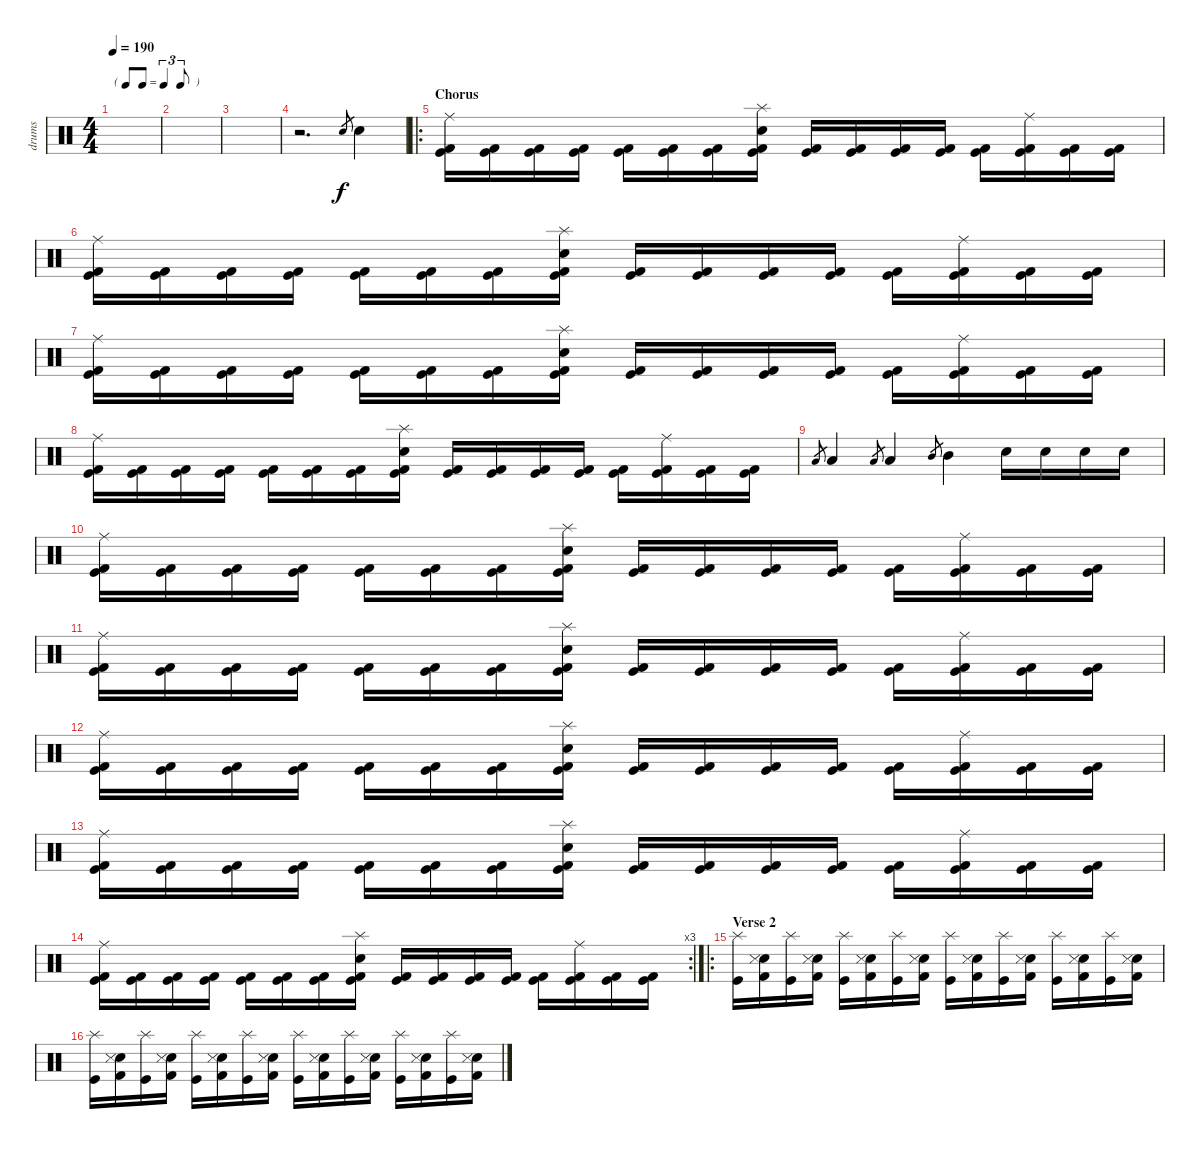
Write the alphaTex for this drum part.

\track ("drums" "drums") {instrument percussion}
\staff {score}
\articulation defaults
\ts (4 4)
\tf triplet8th
\tempo 190
\clef neutral
\ks c
|
|
|
r.2{d} "Snare (hit) 2".8{gr} "Snare (hit) 2".4 |
\ro
\section ("" "Chorus")
("Kick (hit) 2" "Kick (hit)" "Ride (middle)").16 ("Kick (hit) 2" "Kick (hit)").16 ("Kick (hit) 2" "Kick (hit)").16 ("Kick (hit) 2" "Kick (hit)").16 ("Kick (hit) 2" "Kick (hit)").16 ("Kick (hit) 2" "Kick (hit)").16 ("Kick (hit) 2" "Kick (hit)").16 ("Kick (hit) 2" "Kick (hit)" "Electric Snare (hit)" "Splash (hit)").16 ("Kick (hit) 2" "Kick (hit)").16 ("Kick (hit) 2" "Kick (hit)").16 ("Kick (hit) 2" "Kick (hit)").16 ("Kick (hit) 2" "Kick (hit)").16 ("Kick (hit) 2" "Kick (hit)").16 ("Kick (hit) 2" "Kick (hit)" "Ride (middle)").16 ("Kick (hit) 2" "Kick (hit)").16 ("Kick (hit) 2" "Kick (hit)").16 |
("Kick (hit) 2" "Kick (hit)" "Ride (middle)").16 ("Kick (hit) 2" "Kick (hit)").16 ("Kick (hit) 2" "Kick (hit)").16 ("Kick (hit) 2" "Kick (hit)").16 ("Kick (hit) 2" "Kick (hit)").16 ("Kick (hit) 2" "Kick (hit)").16 ("Kick (hit) 2" "Kick (hit)").16 ("Kick (hit) 2" "Kick (hit)" "Electric Snare (hit)" "Splash (hit)").16 ("Kick (hit) 2" "Kick (hit)").16 ("Kick (hit) 2" "Kick (hit)").16 ("Kick (hit) 2" "Kick (hit)").16 ("Kick (hit) 2" "Kick (hit)").16 ("Kick (hit) 2" "Kick (hit)").16 ("Kick (hit) 2" "Kick (hit)" "Ride (middle)").16 ("Kick (hit) 2" "Kick (hit)").16 ("Kick (hit) 2" "Kick (hit)").16 |
("Kick (hit) 2" "Kick (hit)" "Ride (middle)").16 ("Kick (hit) 2" "Kick (hit)").16 ("Kick (hit) 2" "Kick (hit)").16 ("Kick (hit) 2" "Kick (hit)").16 ("Kick (hit) 2" "Kick (hit)").16 ("Kick (hit) 2" "Kick (hit)").16 ("Kick (hit) 2" "Kick (hit)").16 ("Kick (hit) 2" "Kick (hit)" "Electric Snare (hit)" "Splash (hit)").16 ("Kick (hit) 2" "Kick (hit)").16 ("Kick (hit) 2" "Kick (hit)").16 ("Kick (hit) 2" "Kick (hit)").16 ("Kick (hit) 2" "Kick (hit)").16 ("Kick (hit) 2" "Kick (hit)").16 ("Kick (hit) 2" "Kick (hit)" "Ride (middle)").16 ("Kick (hit) 2" "Kick (hit)").16 ("Kick (hit) 2" "Kick (hit)").16 |
("Kick (hit) 2" "Kick (hit)" "Ride (middle)").16 ("Kick (hit) 2" "Kick (hit)").16 ("Kick (hit) 2" "Kick (hit)").16 ("Kick (hit) 2" "Kick (hit)").16 ("Kick (hit) 2" "Kick (hit)").16 ("Kick (hit) 2" "Kick (hit)").16 ("Kick (hit) 2" "Kick (hit)").16 ("Kick (hit) 2" "Kick (hit)" "Electric Snare (hit)" "Splash (hit)").16 ("Kick (hit) 2" "Kick (hit)").16 ("Kick (hit) 2" "Kick (hit)").16 ("Kick (hit) 2" "Kick (hit)").16 ("Kick (hit) 2" "Kick (hit)").16 ("Kick (hit) 2" "Kick (hit)").16 ("Kick (hit) 2" "Kick (hit)" "Ride (middle)").16 ("Kick (hit) 2" "Kick (hit)").16 ("Kick (hit) 2" "Kick (hit)").16 |
"Low Floor Tom (hit)".8{gr} "Low Floor Tom (hit)".4 "Low Tom (hit)".8{gr} "Low Tom (hit)".4 "Mid Tom (hit)".8{gr} "Mid Tom (hit)".4 "Electric Snare (hit)".16 "Electric Snare (hit)".16 "Electric Snare (hit)".16 "Electric Snare (hit)".16 |
("Kick (hit) 2" "Kick (hit)" "Ride (middle)").16 ("Kick (hit) 2" "Kick (hit)").16 ("Kick (hit) 2" "Kick (hit)").16 ("Kick (hit) 2" "Kick (hit)").16 ("Kick (hit) 2" "Kick (hit)").16 ("Kick (hit) 2" "Kick (hit)").16 ("Kick (hit) 2" "Kick (hit)").16 ("Kick (hit) 2" "Kick (hit)" "Electric Snare (hit)" "Splash (hit)").16 ("Kick (hit) 2" "Kick (hit)").16 ("Kick (hit) 2" "Kick (hit)").16 ("Kick (hit) 2" "Kick (hit)").16 ("Kick (hit) 2" "Kick (hit)").16 ("Kick (hit) 2" "Kick (hit)").16 ("Kick (hit) 2" "Kick (hit)" "Ride (middle)").16 ("Kick (hit) 2" "Kick (hit)").16 ("Kick (hit) 2" "Kick (hit)").16 |
("Kick (hit) 2" "Kick (hit)" "Ride (middle)").16 ("Kick (hit) 2" "Kick (hit)").16 ("Kick (hit) 2" "Kick (hit)").16 ("Kick (hit) 2" "Kick (hit)").16 ("Kick (hit) 2" "Kick (hit)").16 ("Kick (hit) 2" "Kick (hit)").16 ("Kick (hit) 2" "Kick (hit)").16 ("Kick (hit) 2" "Kick (hit)" "Electric Snare (hit)" "Splash (hit)").16 ("Kick (hit) 2" "Kick (hit)").16 ("Kick (hit) 2" "Kick (hit)").16 ("Kick (hit) 2" "Kick (hit)").16 ("Kick (hit) 2" "Kick (hit)").16 ("Kick (hit) 2" "Kick (hit)").16 ("Kick (hit) 2" "Kick (hit)" "Ride (middle)").16 ("Kick (hit) 2" "Kick (hit)").16 ("Kick (hit) 2" "Kick (hit)").16 |
("Kick (hit) 2" "Kick (hit)" "Ride (middle)").16 ("Kick (hit) 2" "Kick (hit)").16 ("Kick (hit) 2" "Kick (hit)").16 ("Kick (hit) 2" "Kick (hit)").16 ("Kick (hit) 2" "Kick (hit)").16 ("Kick (hit) 2" "Kick (hit)").16 ("Kick (hit) 2" "Kick (hit)").16 ("Kick (hit) 2" "Kick (hit)" "Electric Snare (hit)" "Splash (hit)").16 ("Kick (hit) 2" "Kick (hit)").16 ("Kick (hit) 2" "Kick (hit)").16 ("Kick (hit) 2" "Kick (hit)").16 ("Kick (hit) 2" "Kick (hit)").16 ("Kick (hit) 2" "Kick (hit)").16 ("Kick (hit) 2" "Kick (hit)" "Ride (middle)").16 ("Kick (hit) 2" "Kick (hit)").16 ("Kick (hit) 2" "Kick (hit)").16 |
("Kick (hit) 2" "Kick (hit)" "Ride (middle)").16 ("Kick (hit) 2" "Kick (hit)").16 ("Kick (hit) 2" "Kick (hit)").16 ("Kick (hit) 2" "Kick (hit)").16 ("Kick (hit) 2" "Kick (hit)").16 ("Kick (hit) 2" "Kick (hit)").16 ("Kick (hit) 2" "Kick (hit)").16 ("Kick (hit) 2" "Kick (hit)" "Electric Snare (hit)" "Splash (hit)").16 ("Kick (hit) 2" "Kick (hit)").16 ("Kick (hit) 2" "Kick (hit)").16 ("Kick (hit) 2" "Kick (hit)").16 ("Kick (hit) 2" "Kick (hit)").16 ("Kick (hit) 2" "Kick (hit)").16 ("Kick (hit) 2" "Kick (hit)" "Ride (middle)").16 ("Kick (hit) 2" "Kick (hit)").16 ("Kick (hit) 2" "Kick (hit)").16 |
\rc 3
("Kick (hit) 2" "Kick (hit)" "Ride (middle)").16 ("Kick (hit) 2" "Kick (hit)").16 ("Kick (hit) 2" "Kick (hit)").16 ("Kick (hit) 2" "Kick (hit)").16 ("Kick (hit) 2" "Kick (hit)").16 ("Kick (hit) 2" "Kick (hit)").16 ("Kick (hit) 2" "Kick (hit)").16 ("Kick (hit) 2" "Kick (hit)" "Electric Snare (hit)" "Splash (hit)").16 ("Kick (hit) 2" "Kick (hit)").16 ("Kick (hit) 2" "Kick (hit)").16 ("Kick (hit) 2" "Kick (hit)").16 ("Kick (hit) 2" "Kick (hit)").16 ("Kick (hit) 2" "Kick (hit)").16 ("Kick (hit) 2" "Kick (hit)" "Ride (middle)").16 ("Kick (hit) 2" "Kick (hit)").16 ("Kick (hit) 2" "Kick (hit)").16 |
\ro
\section ("" "Verse 2")
("Kick (hit)" "Splash (hit)").16 ("Kick (hit) 2" "Electric Snare (hit)" "Snare (side stick) 3").16 ("Kick (hit)" "Splash (hit)").16 ("Kick (hit) 2" "Electric Snare (hit)" "Snare (side stick) 3").16 ("Kick (hit)" "Splash (hit)").16 ("Kick (hit) 2" "Electric Snare (hit)" "Snare (side stick) 3").16 ("Kick (hit)" "Splash (hit)").16 ("Kick (hit) 2" "Electric Snare (hit)" "Snare (side stick) 3").16 ("Kick (hit)" "Splash (hit)").16 ("Kick (hit) 2" "Electric Snare (hit)" "Snare (side stick) 3").16 ("Kick (hit)" "Splash (hit)").16 ("Kick (hit) 2" "Electric Snare (hit)" "Snare (side stick) 3").16 ("Kick (hit)" "Splash (hit)").16 ("Kick (hit) 2" "Electric Snare (hit)" "Snare (side stick) 3").16 ("Kick (hit)" "Splash (hit)").16 ("Kick (hit) 2" "Electric Snare (hit)" "Snare (side stick) 3").16 |
("Kick (hit)" "Splash (hit)").16 ("Kick (hit) 2" "Electric Snare (hit)" "Snare (side stick) 3").16 ("Kick (hit)" "Splash (hit)").16 ("Kick (hit) 2" "Electric Snare (hit)" "Snare (side stick) 3").16 ("Kick (hit)" "Splash (hit)").16 ("Kick (hit) 2" "Electric Snare (hit)" "Snare (side stick) 3").16 ("Kick (hit)" "Splash (hit)").16 ("Kick (hit) 2" "Electric Snare (hit)" "Snare (side stick) 3").16 ("Kick (hit)" "Splash (hit)").16 ("Kick (hit) 2" "Electric Snare (hit)" "Snare (side stick) 3").16 ("Kick (hit)" "Splash (hit)").16 ("Kick (hit) 2" "Electric Snare (hit)" "Snare (side stick) 3").16 ("Kick (hit)" "Splash (hit)").16 ("Kick (hit) 2" "Electric Snare (hit)" "Snare (side stick) 3").16 ("Kick (hit)" "Splash (hit)").16 ("Kick (hit) 2" "Electric Snare (hit)" "Snare (side stick) 3").16
